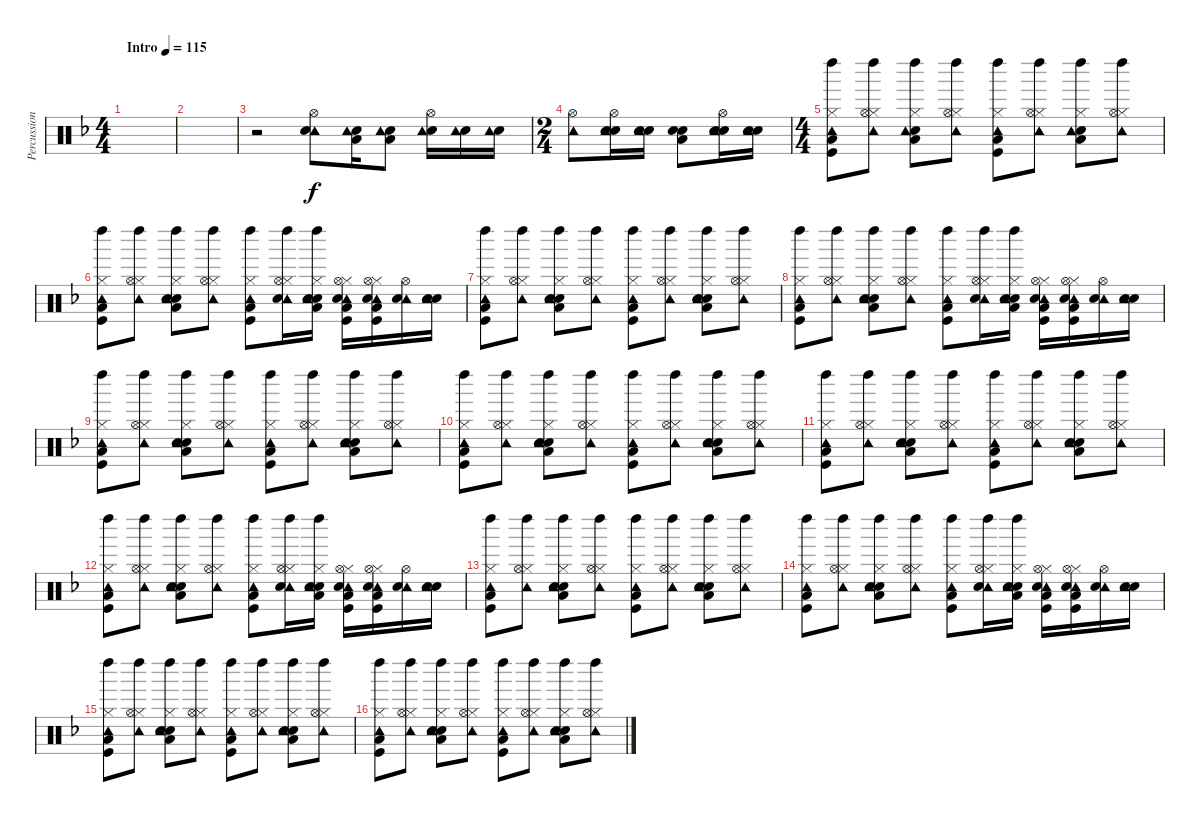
\track ("Percussion" "Percussion") {instrument percussion}
\staff {score}
\articulation defaults
\ts (4 4)
\tempo (115 "Intro")
\clef neutral
\ks dminor
|
|
r.2 ("Hi-Hat (open)" "Tambourine (hit)" "Snare (hit) 2").8 ("Snare (hit) 2" "Tambourine (hit)" "Low Floor Tom (hit)").16 ("Snare (hit) 2" "Tambourine (hit)" "Low Floor Tom (hit)").8 ("Hi-Hat (open)" "Snare (hit) 2" "Tambourine (hit)").16 ("Snare (hit) 2" "Tambourine (hit)").16 ("Snare (hit) 2" "Tambourine (hit)").16 |
\ts (2 4)
("Hi-Hat (open)" "Tambourine (hit)").8 ("Hi-Hat (open)" "Snare (hit) 2" "Tambourine (hit)" "Electric Snare (hit)").16 ("Snare (hit) 2" "Tambourine (hit)" "Electric Snare (hit)").16 ("Low Floor Tom (hit)" "Snare (hit)" "Electric Snare (hit)").8 ("Hi-Hat (open)" "Snare (hit) 2" "Tambourine (hit)" "Electric Snare (hit)").16 ("Snare (hit) 2" "Tambourine (hit)" "Electric Snare (hit)").16 |
\ts (4 4)
("Left Maraca (hit)" "Hi-Hat (closed)" "Tambourine (hit)" "Kick (hit)" "Low Floor Tom (hit)").8 ("Left Maraca (hit)" "Hi-Hat (closed)" "Hi-Hat (open)" "Tambourine (hit)").8 ("Left Maraca (hit)" "Hi-Hat (closed)" "Electric Snare (hit)" "Tambourine (hit)" "Low Tom (hit)").8 ("Left Maraca (hit)" "Hi-Hat (closed)" "Hi-Hat (open)" "Tambourine (hit)").8 ("Left Maraca (hit)" "Hi-Hat (closed)" "Tambourine (hit)" "Kick (hit)" "Low Floor Tom (hit)").8 ("Left Maraca (hit)" "Hi-Hat (closed)" "Hi-Hat (open)" "Tambourine (hit)").8 ("Left Maraca (hit)" "Hi-Hat (closed)" "Electric Snare (hit)" "Tambourine (hit)" "Low Tom (hit)").8 ("Left Maraca (hit)" "Hi-Hat (closed)" "Hi-Hat (open)" "Tambourine (hit)").8 |
("Left Maraca (hit)" "Hi-Hat (closed)" "Tambourine (hit)" "Kick (hit)" "Low Floor Tom (hit)").8 ("Left Maraca (hit)" "Hi-Hat (closed)" "Hi-Hat (open)" "Tambourine (hit)").8 ("Left Maraca (hit)" "Hi-Hat (closed)" "Electric Snare (hit)" "Tambourine (hit)" "Snare (hit) 2" "Low Tom (hit)").8 ("Left Maraca (hit)" "Hi-Hat (closed)" "Hi-Hat (open)" "Tambourine (hit)").8 ("Left Maraca (hit)" "Hi-Hat (closed)" "Tambourine (hit)" "Kick (hit)" "Low Floor Tom (hit)").8 ("Left Maraca (hit)" "Hi-Hat (closed)" "Hi-Hat (open)" "Tambourine (hit)" "Snare (hit) 2").16 ("Left Maraca (hit)" "Hi-Hat (closed)" "Electric Snare (hit)" "Tambourine (hit)" "Snare (hit) 2" "Low Tom (hit)").16 ("Kick (hit)" "Hi-Hat (closed)" "Hi-Hat (open)" "Tambourine (hit)" "Electric Snare (hit)" "Low Floor Tom (hit)").16 ("Kick (hit)" "Hi-Hat (closed)" "Hi-Hat (open)" "Tambourine (hit)" "Electric Snare (hit)" "Low Floor Tom (hit)").16 ("Hi-Hat (open)" "Tambourine (hit)" "Snare (hit) 2").16 ("Electric Snare (hit)" "Tambourine (hit)" "Snare (hit) 2").16 |
("Left Maraca (hit)" "Hi-Hat (closed)" "Tambourine (hit)" "Kick (hit)" "Low Floor Tom (hit)").8 ("Left Maraca (hit)" "Hi-Hat (closed)" "Hi-Hat (open)" "Tambourine (hit)").8 ("Left Maraca (hit)" "Hi-Hat (closed)" "Electric Snare (hit)" "Tambourine (hit)" "Snare (hit) 2" "Low Tom (hit)").8 ("Left Maraca (hit)" "Hi-Hat (closed)" "Hi-Hat (open)" "Tambourine (hit)").8 ("Left Maraca (hit)" "Hi-Hat (closed)" "Tambourine (hit)" "Kick (hit)" "Low Floor Tom (hit)").8 ("Left Maraca (hit)" "Hi-Hat (closed)" "Hi-Hat (open)" "Tambourine (hit)").8 ("Left Maraca (hit)" "Hi-Hat (closed)" "Electric Snare (hit)" "Tambourine (hit)" "Snare (hit) 2" "Low Tom (hit)").8 ("Left Maraca (hit)" "Hi-Hat (closed)" "Hi-Hat (open)" "Tambourine (hit)").8 |
("Left Maraca (hit)" "Hi-Hat (closed)" "Tambourine (hit)" "Kick (hit)" "Low Floor Tom (hit)").8 ("Left Maraca (hit)" "Hi-Hat (closed)" "Hi-Hat (open)" "Tambourine (hit)").8 ("Left Maraca (hit)" "Hi-Hat (closed)" "Electric Snare (hit)" "Tambourine (hit)" "Snare (hit) 2" "Low Tom (hit)").8 ("Left Maraca (hit)" "Hi-Hat (closed)" "Hi-Hat (open)" "Tambourine (hit)").8 ("Left Maraca (hit)" "Hi-Hat (closed)" "Tambourine (hit)" "Kick (hit)" "Low Floor Tom (hit)").8 ("Left Maraca (hit)" "Hi-Hat (closed)" "Hi-Hat (open)" "Tambourine (hit)" "Snare (hit) 2").16 ("Left Maraca (hit)" "Hi-Hat (closed)" "Electric Snare (hit)" "Tambourine (hit)" "Snare (hit) 2" "Low Tom (hit)").16 ("Kick (hit)" "Hi-Hat (closed)" "Hi-Hat (open)" "Tambourine (hit)" "Electric Snare (hit)" "Low Floor Tom (hit)").16 ("Kick (hit)" "Hi-Hat (closed)" "Hi-Hat (open)" "Tambourine (hit)" "Electric Snare (hit)" "Low Floor Tom (hit)").16 ("Hi-Hat (open)" "Tambourine (hit)" "Snare (hit) 2").16 ("Electric Snare (hit)" "Tambourine (hit)" "Snare (hit) 2").16 |
("Left Maraca (hit)" "Hi-Hat (closed)" "Tambourine (hit)" "Kick (hit)" "Low Floor Tom (hit)").8 ("Left Maraca (hit)" "Hi-Hat (closed)" "Hi-Hat (open)" "Tambourine (hit)").8 ("Left Maraca (hit)" "Hi-Hat (closed)" "Electric Snare (hit)" "Tambourine (hit)" "Snare (hit) 2" "Low Tom (hit)").8 ("Left Maraca (hit)" "Hi-Hat (closed)" "Hi-Hat (open)" "Tambourine (hit)").8 ("Left Maraca (hit)" "Hi-Hat (closed)" "Tambourine (hit)" "Kick (hit)" "Low Floor Tom (hit)").8 ("Left Maraca (hit)" "Hi-Hat (closed)" "Hi-Hat (open)" "Tambourine (hit)").8 ("Left Maraca (hit)" "Hi-Hat (closed)" "Electric Snare (hit)" "Tambourine (hit)" "Snare (hit) 2" "Low Tom (hit)").8 ("Left Maraca (hit)" "Hi-Hat (closed)" "Hi-Hat (open)" "Tambourine (hit)").8 |
("Left Maraca (hit)" "Hi-Hat (closed)" "Tambourine (hit)" "Kick (hit)" "Low Floor Tom (hit)").8 ("Left Maraca (hit)" "Hi-Hat (closed)" "Hi-Hat (open)" "Tambourine (hit)").8 ("Left Maraca (hit)" "Hi-Hat (closed)" "Electric Snare (hit)" "Tambourine (hit)" "Snare (hit) 2" "Low Tom (hit)").8 ("Left Maraca (hit)" "Hi-Hat (closed)" "Hi-Hat (open)" "Tambourine (hit)").8 ("Left Maraca (hit)" "Hi-Hat (closed)" "Tambourine (hit)" "Kick (hit)" "Low Floor Tom (hit)").8 ("Left Maraca (hit)" "Hi-Hat (closed)" "Hi-Hat (open)" "Tambourine (hit)").8 ("Left Maraca (hit)" "Hi-Hat (closed)" "Electric Snare (hit)" "Tambourine (hit)" "Snare (hit) 2" "Low Tom (hit)").8 ("Left Maraca (hit)" "Hi-Hat (closed)" "Hi-Hat (open)" "Tambourine (hit)").8 |
("Left Maraca (hit)" "Hi-Hat (closed)" "Tambourine (hit)" "Kick (hit)" "Low Floor Tom (hit)").8 ("Left Maraca (hit)" "Hi-Hat (closed)" "Hi-Hat (open)" "Tambourine (hit)").8 ("Left Maraca (hit)" "Hi-Hat (closed)" "Electric Snare (hit)" "Tambourine (hit)" "Snare (hit) 2" "Low Tom (hit)").8 ("Left Maraca (hit)" "Hi-Hat (closed)" "Hi-Hat (open)" "Tambourine (hit)").8 ("Left Maraca (hit)" "Hi-Hat (closed)" "Tambourine (hit)" "Kick (hit)" "Low Floor Tom (hit)").8 ("Left Maraca (hit)" "Hi-Hat (closed)" "Hi-Hat (open)" "Tambourine (hit)").8 ("Left Maraca (hit)" "Hi-Hat (closed)" "Electric Snare (hit)" "Tambourine (hit)" "Snare (hit) 2" "Low Tom (hit)").8 ("Left Maraca (hit)" "Hi-Hat (closed)" "Hi-Hat (open)" "Tambourine (hit)").8 |
("Left Maraca (hit)" "Hi-Hat (closed)" "Tambourine (hit)" "Kick (hit)" "Low Floor Tom (hit)").8 ("Left Maraca (hit)" "Hi-Hat (closed)" "Hi-Hat (open)" "Tambourine (hit)").8 ("Left Maraca (hit)" "Hi-Hat (closed)" "Electric Snare (hit)" "Tambourine (hit)" "Snare (hit) 2" "Low Tom (hit)").8 ("Left Maraca (hit)" "Hi-Hat (closed)" "Hi-Hat (open)" "Tambourine (hit)").8 ("Left Maraca (hit)" "Hi-Hat (closed)" "Tambourine (hit)" "Kick (hit)" "Low Floor Tom (hit)").8 ("Left Maraca (hit)" "Hi-Hat (closed)" "Hi-Hat (open)" "Tambourine (hit)" "Snare (hit) 2").16 ("Left Maraca (hit)" "Hi-Hat (closed)" "Electric Snare (hit)" "Tambourine (hit)" "Snare (hit) 2" "Low Tom (hit)").16 ("Kick (hit)" "Hi-Hat (closed)" "Hi-Hat (open)" "Tambourine (hit)" "Electric Snare (hit)" "Low Floor Tom (hit)").16 ("Kick (hit)" "Hi-Hat (closed)" "Hi-Hat (open)" "Tambourine (hit)" "Electric Snare (hit)" "Low Floor Tom (hit)").16 ("Hi-Hat (open)" "Tambourine (hit)" "Snare (hit) 2").16 ("Electric Snare (hit)" "Tambourine (hit)" "Snare (hit) 2").16 |
("Left Maraca (hit)" "Hi-Hat (closed)" "Tambourine (hit)" "Kick (hit)" "Low Floor Tom (hit)").8 ("Left Maraca (hit)" "Hi-Hat (closed)" "Hi-Hat (open)" "Tambourine (hit)").8 ("Left Maraca (hit)" "Hi-Hat (closed)" "Electric Snare (hit)" "Tambourine (hit)" "Snare (hit) 2" "Low Tom (hit)").8 ("Left Maraca (hit)" "Hi-Hat (closed)" "Hi-Hat (open)" "Tambourine (hit)").8 ("Left Maraca (hit)" "Hi-Hat (closed)" "Tambourine (hit)" "Kick (hit)" "Low Floor Tom (hit)").8 ("Left Maraca (hit)" "Hi-Hat (closed)" "Hi-Hat (open)" "Tambourine (hit)").8 ("Left Maraca (hit)" "Hi-Hat (closed)" "Electric Snare (hit)" "Tambourine (hit)" "Snare (hit) 2" "Low Tom (hit)").8 ("Left Maraca (hit)" "Hi-Hat (closed)" "Hi-Hat (open)" "Tambourine (hit)").8 |
("Left Maraca (hit)" "Hi-Hat (closed)" "Tambourine (hit)" "Kick (hit)" "Low Floor Tom (hit)").8 ("Left Maraca (hit)" "Hi-Hat (closed)" "Hi-Hat (open)" "Tambourine (hit)").8 ("Left Maraca (hit)" "Hi-Hat (closed)" "Electric Snare (hit)" "Tambourine (hit)" "Snare (hit) 2" "Low Tom (hit)").8 ("Left Maraca (hit)" "Hi-Hat (closed)" "Hi-Hat (open)" "Tambourine (hit)").8 ("Left Maraca (hit)" "Hi-Hat (closed)" "Tambourine (hit)" "Kick (hit)" "Low Floor Tom (hit)").8 ("Left Maraca (hit)" "Hi-Hat (closed)" "Hi-Hat (open)" "Tambourine (hit)" "Snare (hit) 2").16 ("Left Maraca (hit)" "Hi-Hat (closed)" "Electric Snare (hit)" "Tambourine (hit)" "Snare (hit) 2" "Low Tom (hit)").16 ("Kick (hit)" "Hi-Hat (closed)" "Hi-Hat (open)" "Tambourine (hit)" "Electric Snare (hit)" "Low Floor Tom (hit)").16 ("Kick (hit)" "Hi-Hat (closed)" "Hi-Hat (open)" "Tambourine (hit)" "Electric Snare (hit)" "Low Floor Tom (hit)").16 ("Hi-Hat (open)" "Tambourine (hit)" "Snare (hit) 2").16 ("Electric Snare (hit)" "Tambourine (hit)" "Snare (hit) 2").16 |
("Left Maraca (hit)" "Hi-Hat (closed)" "Tambourine (hit)" "Kick (hit)" "Low Floor Tom (hit)").8 ("Left Maraca (hit)" "Hi-Hat (closed)" "Hi-Hat (open)" "Tambourine (hit)").8 ("Left Maraca (hit)" "Hi-Hat (closed)" "Electric Snare (hit)" "Tambourine (hit)" "Snare (hit) 2" "Low Tom (hit)").8 ("Left Maraca (hit)" "Hi-Hat (closed)" "Hi-Hat (open)" "Tambourine (hit)").8 ("Left Maraca (hit)" "Hi-Hat (closed)" "Tambourine (hit)" "Kick (hit)" "Low Floor Tom (hit)").8 ("Left Maraca (hit)" "Hi-Hat (closed)" "Hi-Hat (open)" "Tambourine (hit)").8 ("Left Maraca (hit)" "Hi-Hat (closed)" "Electric Snare (hit)" "Tambourine (hit)" "Snare (hit) 2" "Low Tom (hit)").8 ("Left Maraca (hit)" "Hi-Hat (closed)" "Hi-Hat (open)" "Tambourine (hit)").8 |
("Left Maraca (hit)" "Hi-Hat (closed)" "Tambourine (hit)" "Kick (hit)" "Low Floor Tom (hit)").8 ("Left Maraca (hit)" "Hi-Hat (closed)" "Hi-Hat (open)" "Tambourine (hit)").8 ("Left Maraca (hit)" "Hi-Hat (closed)" "Electric Snare (hit)" "Tambourine (hit)" "Snare (hit) 2" "Low Tom (hit)").8 ("Left Maraca (hit)" "Hi-Hat (closed)" "Hi-Hat (open)" "Tambourine (hit)").8 ("Left Maraca (hit)" "Hi-Hat (closed)" "Tambourine (hit)" "Kick (hit)" "Low Floor Tom (hit)").8 ("Left Maraca (hit)" "Hi-Hat (closed)" "Hi-Hat (open)" "Tambourine (hit)").8 ("Left Maraca (hit)" "Hi-Hat (closed)" "Electric Snare (hit)" "Tambourine (hit)" "Snare (hit) 2" "Low Tom (hit)").8 ("Left Maraca (hit)" "Hi-Hat (closed)" "Hi-Hat (open)" "Tambourine (hit)").8
